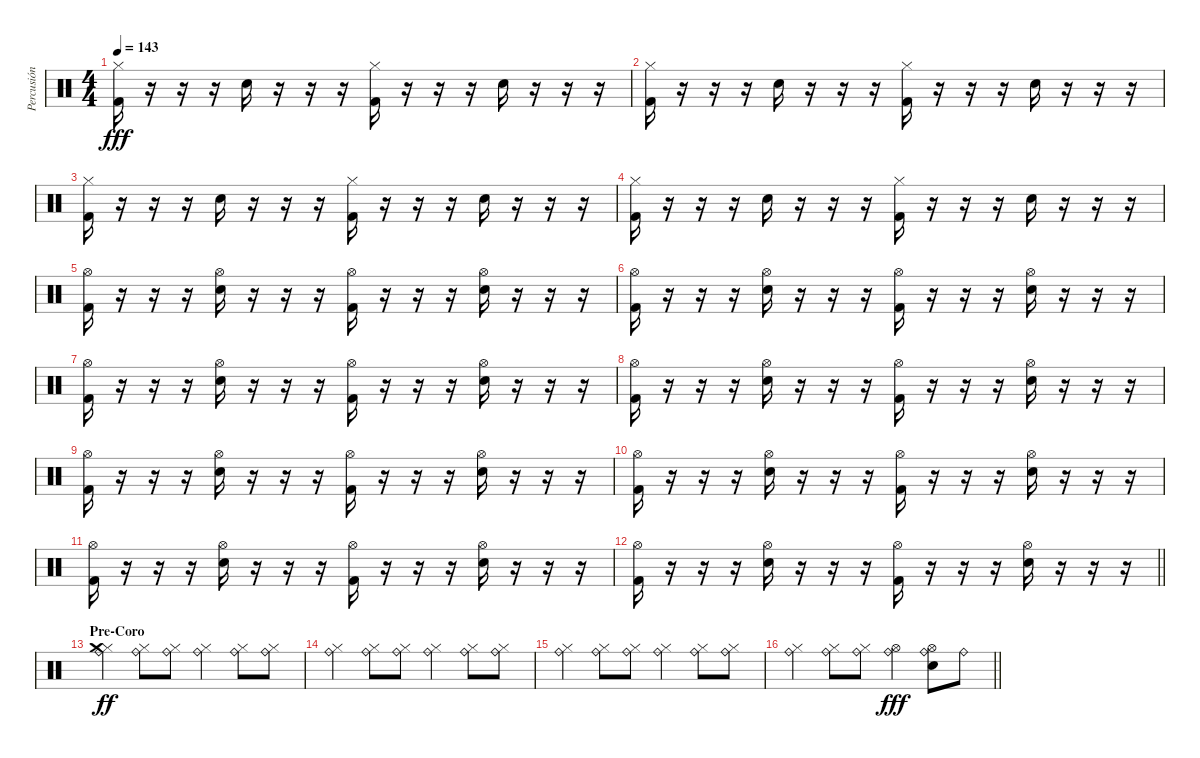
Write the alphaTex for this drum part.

\track ("Percusión" "Percusión") {instrument percussion}
\staff {score}
\articulation defaults
\ts (4 4)
\tempo 143
\clef neutral
\ks c
("Kick (hit) 2" "Hi-Hat (closed)").16{dy fff} r.16 r.16 r.16 "Snare (hit) 2".16 r.16 r.16 r.16 ("Kick (hit) 2" "Hi-Hat (closed)").16 r.16 r.16 r.16 "Snare (hit) 2".16 r.16 r.16 r.16 |
("Kick (hit) 2" "Hi-Hat (closed)").16 r.16 r.16 r.16 "Snare (hit) 2".16 r.16 r.16 r.16 ("Kick (hit) 2" "Hi-Hat (closed)").16 r.16 r.16 r.16 "Snare (hit) 2".16 r.16 r.16 r.16 |
("Kick (hit) 2" "Hi-Hat (closed)").16 r.16 r.16 r.16 "Snare (hit) 2".16 r.16 r.16 r.16 ("Kick (hit) 2" "Hi-Hat (closed)").16 r.16 r.16 r.16 "Snare (hit) 2".16 r.16 r.16 r.16 |
("Kick (hit) 2" "Hi-Hat (closed)").16 r.16 r.16 r.16 "Snare (hit) 2".16 r.16 r.16 r.16 ("Kick (hit) 2" "Hi-Hat (closed)").16 r.16 r.16 r.16 "Snare (hit) 2".16 r.16 r.16 r.16 |
("Kick (hit) 2" "Hi-Hat (open)").16 r.16 r.16 r.16 ("Snare (hit) 2" "Hi-Hat (open)").16 r.16 r.16 r.16 ("Kick (hit) 2" "Hi-Hat (open)").16 r.16 r.16 r.16 ("Snare (hit) 2" "Hi-Hat (open)").16 r.16 r.16 r.16 |
("Kick (hit) 2" "Hi-Hat (open)").16 r.16 r.16 r.16 ("Snare (hit) 2" "Hi-Hat (open)").16 r.16 r.16 r.16 ("Kick (hit) 2" "Hi-Hat (open)").16 r.16 r.16 r.16 ("Snare (hit) 2" "Hi-Hat (open)").16 r.16 r.16 r.16 |
("Kick (hit) 2" "Hi-Hat (open)").16 r.16 r.16 r.16 ("Snare (hit) 2" "Hi-Hat (open)").16 r.16 r.16 r.16 ("Kick (hit) 2" "Hi-Hat (open)").16 r.16 r.16 r.16 ("Snare (hit) 2" "Hi-Hat (open)").16 r.16 r.16 r.16 |
("Kick (hit) 2" "Hi-Hat (open)").16 r.16 r.16 r.16 ("Snare (hit) 2" "Hi-Hat (open)").16 r.16 r.16 r.16 ("Kick (hit) 2" "Hi-Hat (open)").16 r.16 r.16 r.16 ("Snare (hit) 2" "Hi-Hat (open)").16 r.16 r.16 r.16 |
("Kick (hit) 2" "Hi-Hat (open)").16 r.16 r.16 r.16 ("Snare (hit) 2" "Hi-Hat (open)").16 r.16 r.16 r.16 ("Kick (hit) 2" "Hi-Hat (open)").16 r.16 r.16 r.16 ("Snare (hit) 2" "Hi-Hat (open)").16 r.16 r.16 r.16 |
("Kick (hit) 2" "Hi-Hat (open)").16 r.16 r.16 r.16 ("Snare (hit) 2" "Hi-Hat (open)").16 r.16 r.16 r.16 ("Kick (hit) 2" "Hi-Hat (open)").16 r.16 r.16 r.16 ("Snare (hit) 2" "Hi-Hat (open)").16 r.16 r.16 r.16 |
("Kick (hit) 2" "Hi-Hat (open)").16 r.16 r.16 r.16 ("Snare (hit) 2" "Hi-Hat (open)").16 r.16 r.16 r.16 ("Kick (hit) 2" "Hi-Hat (open)").16 r.16 r.16 r.16 ("Snare (hit) 2" "Hi-Hat (open)").16 r.16 r.16 r.16 |
\barLineRight lightlight
("Kick (hit) 2" "Hi-Hat (open)").16 r.16 r.16 r.16 ("Snare (hit) 2" "Hi-Hat (open)").16 r.16 r.16 r.16 ("Kick (hit) 2" "Hi-Hat (open)").16 r.16 r.16 r.16 ("Snare (hit) 2" "Hi-Hat (open)").16 r.16 r.16 r.16 |
\section ("" "Pre-Coro")
("Ride (bell)" "Hi-Hat (closed)" "Crash medium (hit)").4{dy ff} ("Ride (bell)" "Hi-Hat (closed)").8 ("Ride (bell)" "Hi-Hat (closed)").8 ("Ride (bell)" "Hi-Hat (closed)").4 ("Ride (bell)" "Hi-Hat (closed)").8 ("Ride (bell)" "Hi-Hat (closed)").8 |
("Ride (bell)" "Hi-Hat (closed)").4 ("Ride (bell)" "Hi-Hat (closed)").8 ("Ride (bell)" "Hi-Hat (closed)").8 ("Ride (bell)" "Hi-Hat (closed)").4 ("Ride (bell)" "Hi-Hat (closed)").8 ("Ride (bell)" "Hi-Hat (closed)").8 |
("Ride (bell)" "Hi-Hat (closed)").4 ("Ride (bell)" "Hi-Hat (closed)").8 ("Ride (bell)" "Hi-Hat (closed)").8 ("Ride (bell)" "Hi-Hat (closed)").4 ("Ride (bell)" "Hi-Hat (closed)").8 ("Ride (bell)" "Hi-Hat (closed)").8 |
\barLineRight lightlight
("Ride (bell)" "Hi-Hat (closed)").4 ("Ride (bell)" "Hi-Hat (closed)").8 ("Ride (bell)" "Hi-Hat (closed)").8 ("Ride (bell)" "Hi-Hat (open)").4{dy fff} ("Ride (bell)" "Hi-Hat (open)" "Snare (hit) 2").8 "Ride (bell)".8
